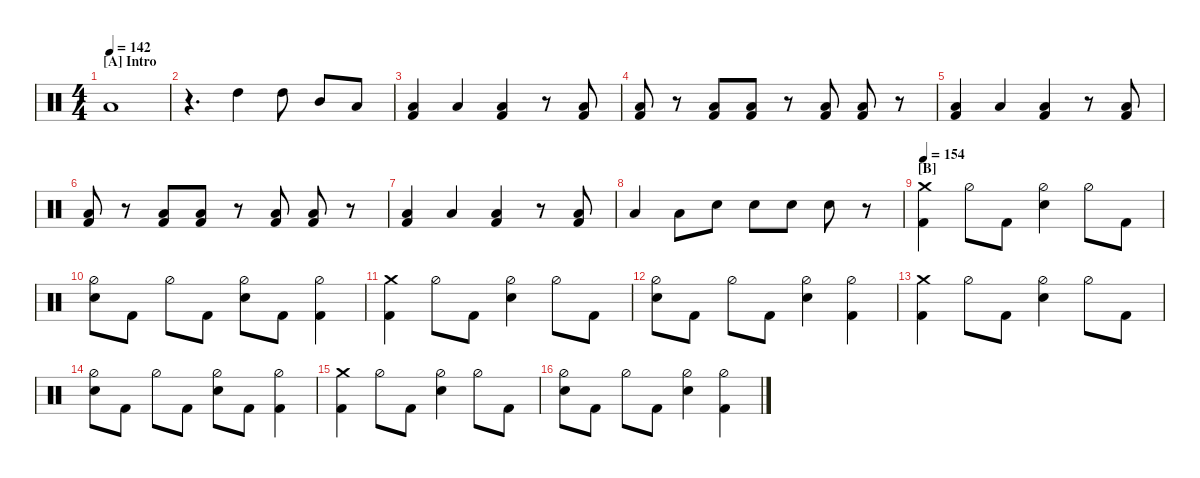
\defaultSystemsLayout 4
\hideDynamics
\bracketExtendMode nobrackets
\singleTrackTrackNamePolicy hidden
\multiTrackTrackNamePolicy hidden
\firstSystemTrackNameMode fullname
\firstSystemTrackNameOrientation horizontal
\otherSystemsTrackNameOrientation horizontal
\track ("Drum" "Drums") {instrument percussion}
\staff {score}
\articulation defaults
\ts (4 4)
\section ("A" "Intro")
\scale
0.30674
\tempo 142
\accidentals auto
\clef neutral
\ottava regular
\simile none
\scale
0.195777
\ks c "Low Tom (hit)".1{dy f beam Up}
|
\scale
0.231087
\scale
0.247601 r.4{d beam Down} "High Tom (hit)".4{beam Down} "High Tom (hit)".8{beam Down} "Mid Tom (hit)".8{beam Up} "Low Tom (hit)".8{beam Up} |
\scale
0.231087
\scale
0.24952 ("Low Tom (hit)" "Kick (hit) 2").4{beam Up} "Low Tom (hit)".4{beam Up} ("Low Tom (hit)" "Kick (hit) 2").4{beam Up} r.8{beam Up} ("Kick (hit) 2" "Low Tom (hit)").8{beam Up} |
\scale
0.231087
\scale
0.307102 ("Kick (hit) 2" "Low Tom (hit)").8{beam Up} r.8{beam Up} ("Kick (hit) 2" "Low Tom (hit)").8{beam Up} ("Kick (hit) 2" "Low Tom (hit)").8{beam Up} r.8{beam Up} ("Kick (hit) 2" "Low Tom (hit)").8{beam Up} ("Kick (hit) 2" "Low Tom (hit)").8{beam Up} r.8{beam Up} |
\scale
0.25
\scale
0.22807 ("Low Tom (hit)" "Kick (hit) 2").4{beam Up} "Low Tom (hit)".4{beam Up} ("Low Tom (hit)" "Kick (hit) 2").4{beam Up} r.8{beam Up} ("Kick (hit) 2" "Low Tom (hit)").8{beam Up} |
\scale
0.25
\scale
0.280702 ("Kick (hit) 2" "Low Tom (hit)").8{beam Up} r.8{beam Up} ("Kick (hit) 2" "Low Tom (hit)").8{beam Up} ("Kick (hit) 2" "Low Tom (hit)").8{beam Up} r.8{beam Up} ("Kick (hit) 2" "Low Tom (hit)").8{beam Up} ("Kick (hit) 2" "Low Tom (hit)").8{beam Up} r.8{beam Up} |
\scale
0.25
\scale
0.22807 ("Low Tom (hit)" "Kick (hit) 2").4{beam Up} "Low Tom (hit)".4{beam Up} ("Low Tom (hit)" "Kick (hit) 2").4{beam Up} r.8{beam Up} ("Kick (hit) 2" "Low Tom (hit)").8{beam Up} |
\scale
0.25
\scale
0.263158 "Low Tom (hit)".4{beam Up} "Low Tom (hit)".8{beam Down} "Snare (hit) 2".8{beam Down} "Snare (hit) 2".8{beam Down} "Snare (hit) 2".8{beam Down} "Snare (hit) 2".8{beam Down} r.8{beam Down} |
\section ("B" "")
\scale
0.194444
\tempo 154
\scale
0.245614 ("Kick (hit) 2" "Crash medium (hit)").4{beam Down} "Hi-Hat (half)".8{beam Down} "Kick (hit) 2".8{beam Down} ("Snare (hit) 2" "Hi-Hat (half)").4{beam Down} "Hi-Hat (half)".8{beam Down} "Kick (hit) 2".8{beam Down} |
\scale
0.305556
\scale
0.263158 ("Snare (hit) 2" "Hi-Hat (half)").8{beam Down} "Kick (hit) 2".8{beam Down} "Hi-Hat (half)".8{beam Down} "Kick (hit) 2".8{beam Down} ("Snare (hit) 2" "Hi-Hat (half)").8{beam Down} "Kick (hit) 2".8{beam Down} ("Kick (hit) 2" "Hi-Hat (half)").4{beam Down} |
\scale
0.194444
\scale
0.245614 ("Kick (hit) 2" "Crash medium (hit)").4{beam Down} "Hi-Hat (half)".8{beam Down} "Kick (hit) 2".8{beam Down} ("Snare (hit) 2" "Hi-Hat (half)").4{beam Down} "Hi-Hat (half)".8{beam Down} "Kick (hit) 2".8{beam Down} |
\scale
0.305556
\scale
0.245614 ("Snare (hit) 2" "Hi-Hat (half)").8{beam Down} "Kick (hit) 2".8{beam Down} "Hi-Hat (half)".8{beam Down} "Kick (hit) 2".8{beam Down} ("Snare (hit) 2" "Hi-Hat (half)").4{beam Down} ("Kick (hit) 2" "Hi-Hat (half)").4{beam Down} |
\scale
0.21875
\scale
0.245614 ("Kick (hit) 2" "Crash medium (hit)").4{beam Down} "Hi-Hat (half)".8{beam Down} "Kick (hit) 2".8{beam Down} ("Snare (hit) 2" "Hi-Hat (half)").4{beam Down} "Hi-Hat (half)".8{beam Down} "Kick (hit) 2".8{beam Down} |
\scale
0.34375
\scale
0.263158 ("Snare (hit) 2" "Hi-Hat (half)").8{beam Down} "Kick (hit) 2".8{beam Down} "Hi-Hat (half)".8{beam Down} "Kick (hit) 2".8{beam Down} ("Snare (hit) 2" "Hi-Hat (half)").8{beam Down} "Kick (hit) 2".8{beam Down} ("Kick (hit) 2" "Hi-Hat (half)").4{beam Down} |
\scale
0.21875
\scale
0.245614 ("Kick (hit) 2" "Crash medium (hit)").4{beam Down} "Hi-Hat (half)".8{beam Down} "Kick (hit) 2".8{beam Down} ("Snare (hit) 2" "Hi-Hat (half)").4{beam Down} "Hi-Hat (half)".8{beam Down} "Kick (hit) 2".8{beam Down} |
\scale
0.21875
\scale
0.245614 ("Snare (hit) 2" "Hi-Hat (half)").8{beam Down} "Kick (hit) 2".8{beam Down} "Hi-Hat (half)".8{beam Down} "Kick (hit) 2".8{beam Down} ("Snare (hit) 2" "Hi-Hat (half)").4{beam Down} ("Kick (hit) 2" "Hi-Hat (half)").4{beam Down}
